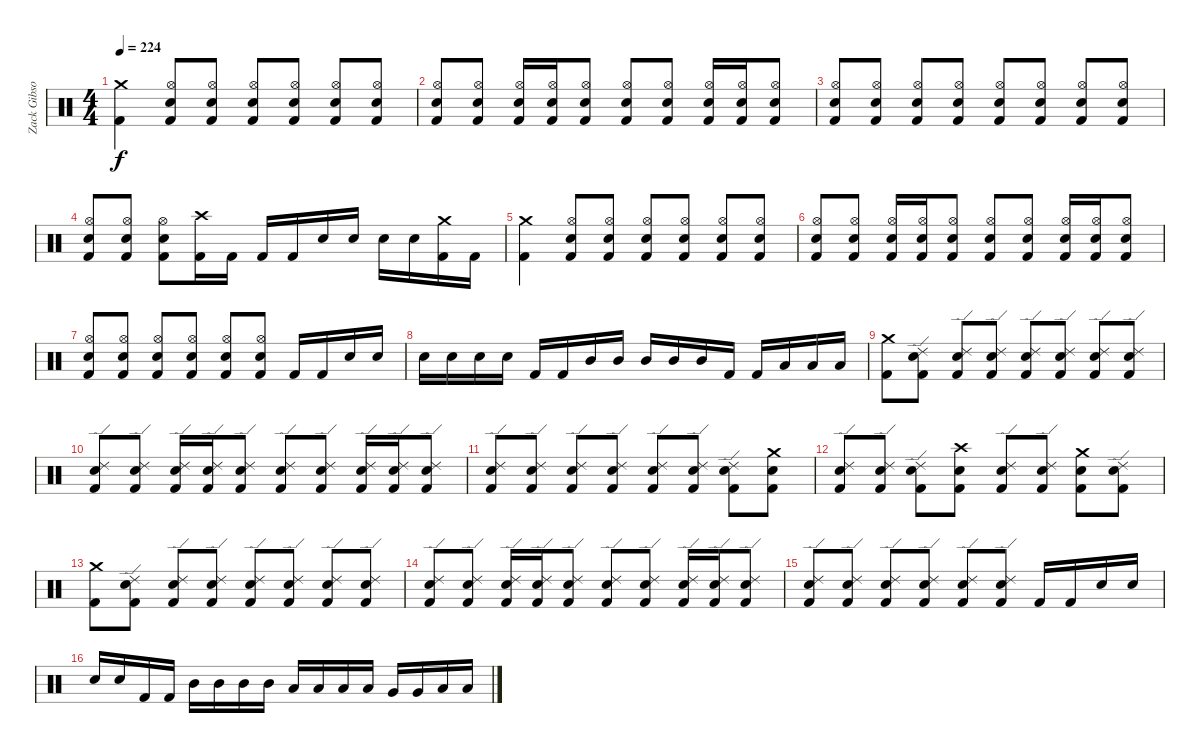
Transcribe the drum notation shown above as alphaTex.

\track ("Zack Gibson" "Zack Gibso") {instrument percussion}
\staff {score}
\articulation defaults
\ts (4 4)
\tempo 224
\clef neutral
\ks c
("Crash medium (hit)" "Kick (hit) 2").4{dy f} ("Hi-Hat (open)" "Kick (hit) 2" "Snare (hit) 2").8 ("Hi-Hat (open)" "Kick (hit) 2" "Snare (hit) 2").8 ("Hi-Hat (open)" "Kick (hit) 2" "Snare (hit) 2").8 ("Hi-Hat (open)" "Kick (hit) 2" "Snare (hit) 2").8 ("Hi-Hat (open)" "Kick (hit) 2" "Snare (hit) 2").8 ("Hi-Hat (open)" "Kick (hit) 2" "Snare (hit) 2").8 |
("Hi-Hat (open)" "Kick (hit) 2" "Snare (hit) 2").8 ("Hi-Hat (open)" "Kick (hit) 2" "Snare (hit) 2").8 ("Hi-Hat (open)" "Kick (hit) 2" "Snare (hit) 2").16 ("Hi-Hat (open)" "Kick (hit) 2" "Snare (hit) 2").16 ("Hi-Hat (open)" "Kick (hit) 2" "Snare (hit) 2").8 ("Hi-Hat (open)" "Kick (hit) 2" "Snare (hit) 2").8 ("Hi-Hat (open)" "Kick (hit) 2" "Snare (hit) 2").8 ("Hi-Hat (open)" "Kick (hit) 2" "Snare (hit) 2").16 ("Hi-Hat (open)" "Kick (hit) 2" "Snare (hit) 2").16 ("Hi-Hat (open)" "Kick (hit) 2" "Snare (hit) 2").8 |
("Hi-Hat (open)" "Kick (hit) 2" "Snare (hit) 2").8 ("Hi-Hat (open)" "Kick (hit) 2" "Snare (hit) 2").8 ("Hi-Hat (open)" "Kick (hit) 2" "Snare (hit) 2").8 ("Hi-Hat (open)" "Kick (hit) 2" "Snare (hit) 2").8 ("Hi-Hat (open)" "Kick (hit) 2" "Snare (hit) 2").8 ("Hi-Hat (open)" "Kick (hit) 2" "Snare (hit) 2").8 ("Hi-Hat (open)" "Kick (hit) 2" "Snare (hit) 2").8 ("Hi-Hat (open)" "Kick (hit) 2" "Snare (hit) 2").8 |
("Hi-Hat (open)" "Kick (hit) 2" "Snare (hit) 2").8 ("Hi-Hat (open)" "Kick (hit) 2" "Snare (hit) 2").8 ("Hi-Hat (open)" "Kick (hit) 2" "Snare (hit) 2").8 ("Crash high (hit)" "Kick (hit) 2").16 "Kick (hit) 2".16 "Kick (hit) 2".16 "Kick (hit) 2".16 "Snare (hit) 2".16 "Snare (hit) 2".16 "Snare (hit) 2".16 "Snare (hit) 2".16 ("Crash medium (hit)" "Kick (hit) 2").16 "Kick (hit) 2".16 |
("Crash medium (hit)" "Kick (hit) 2").4 ("Hi-Hat (open)" "Kick (hit) 2" "Snare (hit) 2").8 ("Hi-Hat (open)" "Kick (hit) 2" "Snare (hit) 2").8 ("Hi-Hat (open)" "Kick (hit) 2" "Snare (hit) 2").8 ("Hi-Hat (open)" "Kick (hit) 2" "Snare (hit) 2").8 ("Hi-Hat (open)" "Kick (hit) 2" "Snare (hit) 2").8 ("Hi-Hat (open)" "Kick (hit) 2" "Snare (hit) 2").8 |
("Hi-Hat (open)" "Kick (hit) 2" "Snare (hit) 2").8 ("Hi-Hat (open)" "Kick (hit) 2" "Snare (hit) 2").8 ("Hi-Hat (open)" "Kick (hit) 2" "Snare (hit) 2").16 ("Hi-Hat (open)" "Kick (hit) 2" "Snare (hit) 2").16 ("Hi-Hat (open)" "Kick (hit) 2" "Snare (hit) 2").8 ("Hi-Hat (open)" "Kick (hit) 2" "Snare (hit) 2").8 ("Hi-Hat (open)" "Kick (hit) 2" "Snare (hit) 2").8 ("Hi-Hat (open)" "Kick (hit) 2" "Snare (hit) 2").16 ("Hi-Hat (open)" "Kick (hit) 2" "Snare (hit) 2").16 ("Hi-Hat (open)" "Kick (hit) 2" "Snare (hit) 2").8 |
("Hi-Hat (open)" "Kick (hit) 2" "Snare (hit) 2").8 ("Hi-Hat (open)" "Kick (hit) 2" "Snare (hit) 2").8 ("Hi-Hat (open)" "Kick (hit) 2" "Snare (hit) 2").8 ("Hi-Hat (open)" "Kick (hit) 2" "Snare (hit) 2").8 ("Hi-Hat (open)" "Kick (hit) 2" "Snare (hit) 2").8 ("Hi-Hat (open)" "Kick (hit) 2" "Snare (hit) 2").8 "Kick (hit) 2".16 "Kick (hit) 2".16 "Snare (hit) 2".16 "Snare (hit) 2".16 |
"Snare (hit) 2".16 "Snare (hit) 2".16 "Snare (hit) 2".16 "Snare (hit) 2".16 "Kick (hit) 2".16 "Kick (hit) 2".16 "Mid Tom (hit)".16 "Mid Tom (hit)".16 "Mid Tom (hit)".16 "Mid Tom (hit)".16 "Mid Tom (hit)".16 "Kick (hit) 2".16 "Kick (hit) 2".16 "Low Tom (hit)".16 "Low Tom (hit)".16 "Low Tom (hit)".16 |
("Crash medium (hit)" "Kick (hit) 2").8 ("Ride (edge) 2" "Kick (hit) 2" "Snare (hit) 2").8 ("Ride (edge) 2" "Kick (hit) 2" "Snare (hit) 2").8 ("Ride (edge) 2" "Kick (hit) 2" "Snare (hit) 2").8 ("Ride (edge) 2" "Kick (hit) 2" "Snare (hit) 2").8 ("Ride (edge) 2" "Kick (hit) 2" "Snare (hit) 2").8 ("Ride (edge) 2" "Kick (hit) 2" "Snare (hit) 2").8 ("Ride (edge) 2" "Kick (hit) 2" "Snare (hit) 2").8 |
("Ride (edge) 2" "Kick (hit) 2" "Snare (hit) 2").8 ("Ride (edge) 2" "Kick (hit) 2" "Snare (hit) 2").8 ("Ride (edge) 2" "Kick (hit) 2" "Snare (hit) 2").16 ("Ride (edge) 2" "Kick (hit) 2" "Snare (hit) 2").16 ("Ride (edge) 2" "Kick (hit) 2" "Snare (hit) 2").8 ("Ride (edge) 2" "Kick (hit) 2" "Snare (hit) 2").8 ("Ride (edge) 2" "Kick (hit) 2" "Snare (hit) 2").8 ("Ride (edge) 2" "Kick (hit) 2" "Snare (hit) 2").16 ("Ride (edge) 2" "Kick (hit) 2" "Snare (hit) 2").16 ("Ride (edge) 2" "Kick (hit) 2" "Snare (hit) 2").8 |
("Ride (edge) 2" "Kick (hit) 2" "Snare (hit) 2").8 ("Ride (edge) 2" "Kick (hit) 2" "Snare (hit) 2").8 ("Ride (edge) 2" "Kick (hit) 2" "Snare (hit) 2").8 ("Ride (edge) 2" "Kick (hit) 2" "Snare (hit) 2").8 ("Ride (edge) 2" "Kick (hit) 2" "Snare (hit) 2").8 ("Ride (edge) 2" "Kick (hit) 2" "Snare (hit) 2").8 ("Ride (edge) 2" "Kick (hit) 2" "Snare (hit) 2").8 ("Crash medium (hit)" "Kick (hit) 2" "Snare (hit) 2").8 |
("Ride (edge) 2" "Kick (hit) 2" "Snare (hit) 2").8 ("Ride (edge) 2" "Kick (hit) 2" "Snare (hit) 2").8 ("Ride (edge) 2" "Kick (hit) 2" "Snare (hit) 2").8 ("Crash high (hit)" "Kick (hit) 2" "Snare (hit) 2").8 ("Ride (edge) 2" "Kick (hit) 2" "Snare (hit) 2").8 ("Ride (edge) 2" "Kick (hit) 2" "Snare (hit) 2").8 ("Crash medium (hit)" "Kick (hit) 2" "Snare (hit) 2").8 ("Ride (edge) 2" "Kick (hit) 2" "Snare (hit) 2").8 |
("Crash medium (hit)" "Kick (hit) 2").8 ("Ride (edge) 2" "Kick (hit) 2" "Snare (hit) 2").8 ("Ride (edge) 2" "Kick (hit) 2" "Snare (hit) 2").8 ("Ride (edge) 2" "Kick (hit) 2" "Snare (hit) 2").8 ("Ride (edge) 2" "Kick (hit) 2" "Snare (hit) 2").8 ("Ride (edge) 2" "Kick (hit) 2" "Snare (hit) 2").8 ("Ride (edge) 2" "Kick (hit) 2" "Snare (hit) 2").8 ("Ride (edge) 2" "Kick (hit) 2" "Snare (hit) 2").8 |
("Ride (edge) 2" "Kick (hit) 2" "Snare (hit) 2").8 ("Ride (edge) 2" "Kick (hit) 2" "Snare (hit) 2").8 ("Ride (edge) 2" "Kick (hit) 2" "Snare (hit) 2").16 ("Ride (edge) 2" "Kick (hit) 2" "Snare (hit) 2").16 ("Ride (edge) 2" "Kick (hit) 2" "Snare (hit) 2").8 ("Ride (edge) 2" "Kick (hit) 2" "Snare (hit) 2").8 ("Ride (edge) 2" "Kick (hit) 2" "Snare (hit) 2").8 ("Ride (edge) 2" "Kick (hit) 2" "Snare (hit) 2").16 ("Ride (edge) 2" "Kick (hit) 2" "Snare (hit) 2").16 ("Ride (edge) 2" "Kick (hit) 2" "Snare (hit) 2").8 |
("Ride (edge) 2" "Kick (hit) 2" "Snare (hit) 2").8 ("Ride (edge) 2" "Kick (hit) 2" "Snare (hit) 2").8 ("Ride (edge) 2" "Kick (hit) 2" "Snare (hit) 2").8 ("Ride (edge) 2" "Kick (hit) 2" "Snare (hit) 2").8 ("Ride (edge) 2" "Kick (hit) 2" "Snare (hit) 2").8 ("Ride (edge) 2" "Kick (hit) 2" "Snare (hit) 2").8 "Kick (hit) 2".16 "Kick (hit) 2".16 "Snare (hit) 2".16 "Snare (hit) 2".16 |
"Snare (hit) 2".16 "Snare (hit) 2".16 "Kick (hit) 2".16 "Kick (hit) 2".16 "Mid Tom (hit)".16 "Mid Tom (hit)".16 "Mid Tom (hit)".16 "Mid Tom (hit)".16 "Low Tom (hit)".16 "Low Tom (hit)".16 "Low Tom (hit)".16 "Low Tom (hit)".16 "Very Low Tom (hit)".16 "Very Low Tom (hit)".16 "Low Floor Tom (hit)".16 "Low Floor Tom (hit)".16
